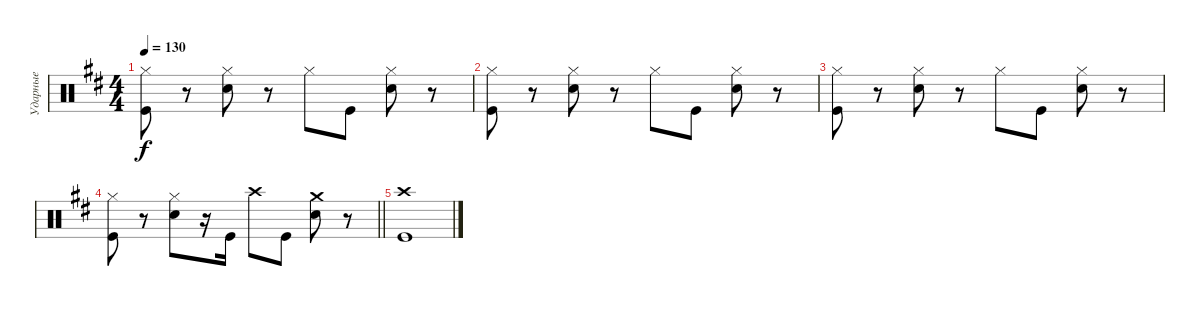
\track ("Ударные" "Ударные") {instrument percussion}
\staff {score}
\articulation defaults
\ts (4 4)
\tempo 130
\clef neutral
\ks bminor
("Hi-Hat (closed)" "Kick (hit)").8{dy f} r.8 ("Hi-Hat (closed)" "Snare (hit) 2").8 r.8 "Hi-Hat (closed)".8 "Kick (hit)".8 ("Hi-Hat (closed)" "Snare (hit) 2").8 r.8 |
("Hi-Hat (closed)" "Kick (hit)").8 r.8 ("Hi-Hat (closed)" "Snare (hit) 2").8 r.8 "Hi-Hat (closed)".8 "Kick (hit)".8 ("Hi-Hat (closed)" "Snare (hit) 2").8 r.8 |
("Hi-Hat (closed)" "Kick (hit)").8 r.8 ("Hi-Hat (closed)" "Snare (hit) 2").8 r.8 "Hi-Hat (closed)".8 "Kick (hit)".8 ("Hi-Hat (closed)" "Snare (hit) 2").8 r.8 |
\barLineRight lightlight
("Hi-Hat (closed)" "Kick (hit)").8 r.8 ("Hi-Hat (closed)" "Snare (hit) 2").8 r.16 "Kick (hit)".16 "Crash high (hit)".8 "Kick (hit)".8 ("Crash medium (hit)" "Snare (hit) 2").8 r.8 |
("Crash high (hit)" "Kick (hit)").1
